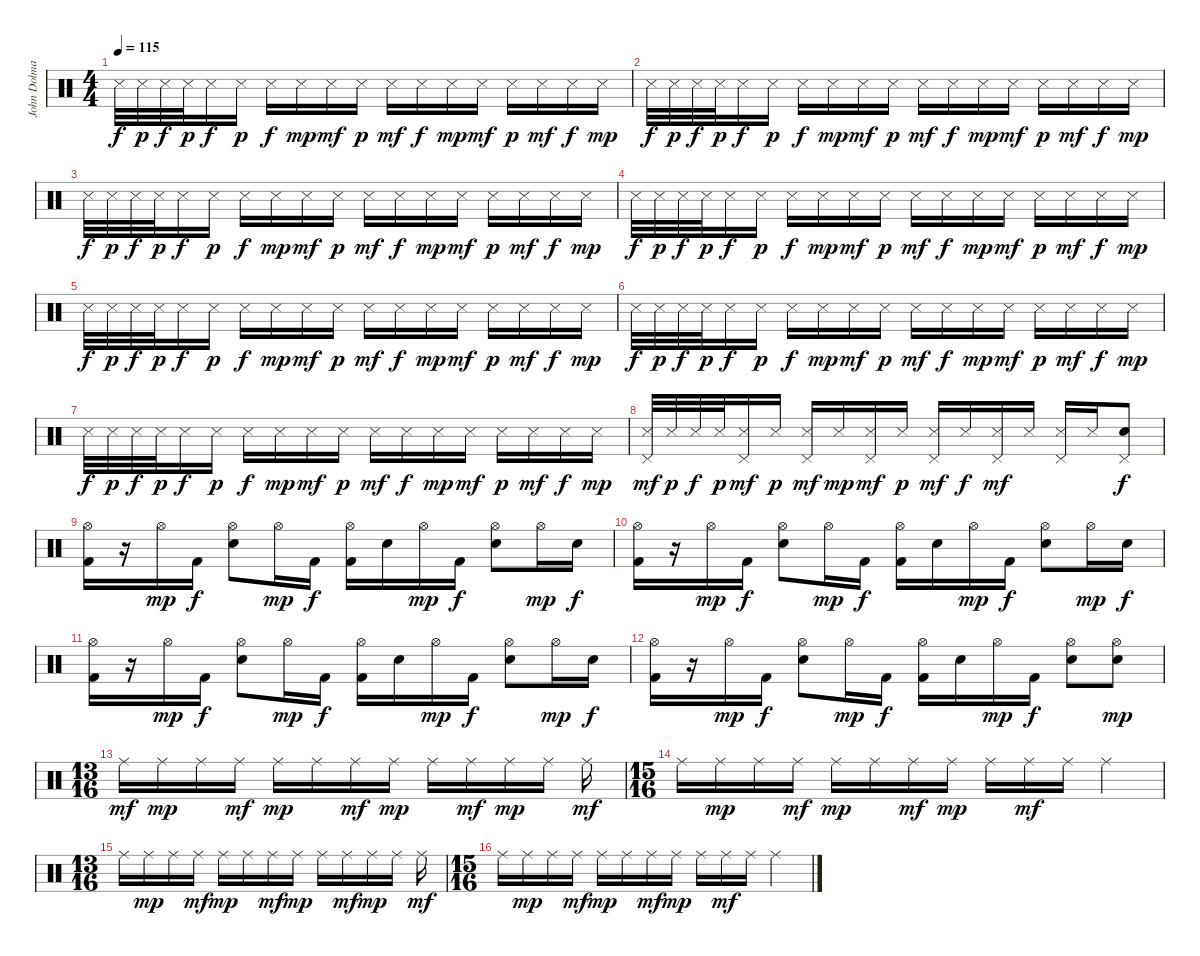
\track ("John Dolmayan" "John Dolma") {instrument percussion}
\staff {score}
\articulation defaults
\ts (4 4)
\tempo 115
\clef neutral
\ks c "Snare (side stick) 3".32{dy f} "Snare (side stick) 3".32{dy p} "Snare (side stick) 3".32{dy f} "Snare (side stick) 3".32{dy p} "Snare (side stick) 3".16{dy f} "Snare (side stick) 3".16{dy p} "Snare (side stick) 3".16{dy f} "Snare (side stick) 3".16{dy mp} "Snare (side stick) 3".16{dy mf} "Snare (side stick) 3".16{dy p} "Snare (side stick) 3".16{dy mf} "Snare (side stick) 3".16{dy f} "Snare (side stick) 3".16{dy mp} "Snare (side stick) 3".16{dy mf} "Snare (side stick) 3".16{dy p} "Snare (side stick) 3".16{dy mf} "Snare (side stick) 3".16{dy f} "Snare (side stick) 3".16{dy mp}
|
"Snare (side stick) 3".32{dy f} "Snare (side stick) 3".32{dy p} "Snare (side stick) 3".32{dy f} "Snare (side stick) 3".32{dy p} "Snare (side stick) 3".16{dy f} "Snare (side stick) 3".16{dy p} "Snare (side stick) 3".16{dy f} "Snare (side stick) 3".16{dy mp} "Snare (side stick) 3".16{dy mf} "Snare (side stick) 3".16{dy p} "Snare (side stick) 3".16{dy mf} "Snare (side stick) 3".16{dy f} "Snare (side stick) 3".16{dy mp} "Snare (side stick) 3".16{dy mf} "Snare (side stick) 3".16{dy p} "Snare (side stick) 3".16{dy mf} "Snare (side stick) 3".16{dy f} "Snare (side stick) 3".16{dy mp} |
"Snare (side stick) 3".32{dy f} "Snare (side stick) 3".32{dy p} "Snare (side stick) 3".32{dy f} "Snare (side stick) 3".32{dy p} "Snare (side stick) 3".16{dy f} "Snare (side stick) 3".16{dy p} "Snare (side stick) 3".16{dy f} "Snare (side stick) 3".16{dy mp} "Snare (side stick) 3".16{dy mf} "Snare (side stick) 3".16{dy p} "Snare (side stick) 3".16{dy mf} "Snare (side stick) 3".16{dy f} "Snare (side stick) 3".16{dy mp} "Snare (side stick) 3".16{dy mf} "Snare (side stick) 3".16{dy p} "Snare (side stick) 3".16{dy mf} "Snare (side stick) 3".16{dy f} "Snare (side stick) 3".16{dy mp} |
"Snare (side stick) 3".32{dy f} "Snare (side stick) 3".32{dy p} "Snare (side stick) 3".32{dy f} "Snare (side stick) 3".32{dy p} "Snare (side stick) 3".16{dy f} "Snare (side stick) 3".16{dy p} "Snare (side stick) 3".16{dy f} "Snare (side stick) 3".16{dy mp} "Snare (side stick) 3".16{dy mf} "Snare (side stick) 3".16{dy p} "Snare (side stick) 3".16{dy mf} "Snare (side stick) 3".16{dy f} "Snare (side stick) 3".16{dy mp} "Snare (side stick) 3".16{dy mf} "Snare (side stick) 3".16{dy p} "Snare (side stick) 3".16{dy mf} "Snare (side stick) 3".16{dy f} "Snare (side stick) 3".16{dy mp} |
"Snare (side stick) 3".32{dy f} "Snare (side stick) 3".32{dy p} "Snare (side stick) 3".32{dy f} "Snare (side stick) 3".32{dy p} "Snare (side stick) 3".16{dy f} "Snare (side stick) 3".16{dy p} "Snare (side stick) 3".16{dy f} "Snare (side stick) 3".16{dy mp} "Snare (side stick) 3".16{dy mf} "Snare (side stick) 3".16{dy p} "Snare (side stick) 3".16{dy mf} "Snare (side stick) 3".16{dy f} "Snare (side stick) 3".16{dy mp} "Snare (side stick) 3".16{dy mf} "Snare (side stick) 3".16{dy p} "Snare (side stick) 3".16{dy mf} "Snare (side stick) 3".16{dy f} "Snare (side stick) 3".16{dy mp} |
"Snare (side stick) 3".32{dy f} "Snare (side stick) 3".32{dy p} "Snare (side stick) 3".32{dy f} "Snare (side stick) 3".32{dy p} "Snare (side stick) 3".16{dy f} "Snare (side stick) 3".16{dy p} "Snare (side stick) 3".16{dy f} "Snare (side stick) 3".16{dy mp} "Snare (side stick) 3".16{dy mf} "Snare (side stick) 3".16{dy p} "Snare (side stick) 3".16{dy mf} "Snare (side stick) 3".16{dy f} "Snare (side stick) 3".16{dy mp} "Snare (side stick) 3".16{dy mf} "Snare (side stick) 3".16{dy p} "Snare (side stick) 3".16{dy mf} "Snare (side stick) 3".16{dy f} "Snare (side stick) 3".16{dy mp} |
"Snare (side stick) 3".32{dy f} "Snare (side stick) 3".32{dy p} "Snare (side stick) 3".32{dy f} "Snare (side stick) 3".32{dy p} "Snare (side stick) 3".16{dy f} "Snare (side stick) 3".16{dy p} "Snare (side stick) 3".16{dy f} "Snare (side stick) 3".16{dy mp} "Snare (side stick) 3".16{dy mf} "Snare (side stick) 3".16{dy p} "Snare (side stick) 3".16{dy mf} "Snare (side stick) 3".16{dy f} "Snare (side stick) 3".16{dy mp} "Snare (side stick) 3".16{dy mf} "Snare (side stick) 3".16{dy p} "Snare (side stick) 3".16{dy mf} "Snare (side stick) 3".16{dy f} "Snare (side stick) 3".16{dy mp} |
("Snare (side stick) 3" "Pedal Hi-Hat (hit)").32{dy mf} "Snare (side stick) 3".32{dy p} "Snare (side stick) 3".32{dy f} "Snare (side stick) 3".32{dy p} ("Snare (side stick) 3" "Pedal Hi-Hat (hit)").16{dy mf} "Snare (side stick) 3".16{dy p} ("Snare (side stick) 3" "Pedal Hi-Hat (hit)").16{dy mf} "Snare (side stick) 3".16{dy mp} ("Snare (side stick) 3" "Pedal Hi-Hat (hit)").16{dy mf} "Snare (side stick) 3".16{dy p} ("Snare (side stick) 3" "Pedal Hi-Hat (hit)").16{dy mf} "Snare (side stick) 3".16{dy f} ("Snare (side stick) 3" "Pedal Hi-Hat (hit)").16{dy mf} "Snare (side stick) 3".16 ("Snare (side stick) 3" "Pedal Hi-Hat (hit)").16 "Snare (side stick) 3".16 ("Pedal Hi-Hat (hit)" "Electric Snare (hit)").8{dy f} |
("Hi-Hat (open)" "Kick (hit) 2").16 r.16 "Hi-Hat (open)".16{dy mp} "Kick (hit) 2".16{dy f} ("Hi-Hat (open)" "Electric Snare (hit)").8 "Hi-Hat (open)".16{dy mp} "Kick (hit) 2".16{dy f} ("Hi-Hat (open)" "Kick (hit) 2").16 "Electric Snare (hit)".16 "Hi-Hat (open)".16{dy mp} "Kick (hit) 2".16{dy f} ("Hi-Hat (open)" "Electric Snare (hit)").8 "Hi-Hat (open)".16{dy mp} "Electric Snare (hit)".16{dy f} |
("Hi-Hat (open)" "Kick (hit) 2").16 r.16 "Hi-Hat (open)".16{dy mp} "Kick (hit) 2".16{dy f} ("Hi-Hat (open)" "Electric Snare (hit)").8 "Hi-Hat (open)".16{dy mp} "Kick (hit) 2".16{dy f} ("Hi-Hat (open)" "Kick (hit) 2").16 "Electric Snare (hit)".16 "Hi-Hat (open)".16{dy mp} "Kick (hit) 2".16{dy f} ("Hi-Hat (open)" "Electric Snare (hit)").8 "Hi-Hat (open)".16{dy mp} "Electric Snare (hit)".16{dy f} |
("Hi-Hat (open)" "Kick (hit) 2").16 r.16 "Hi-Hat (open)".16{dy mp} "Kick (hit) 2".16{dy f} ("Hi-Hat (open)" "Electric Snare (hit)").8 "Hi-Hat (open)".16{dy mp} "Kick (hit) 2".16{dy f} ("Hi-Hat (open)" "Kick (hit) 2").16 "Electric Snare (hit)".16 "Hi-Hat (open)".16{dy mp} "Kick (hit) 2".16{dy f} ("Hi-Hat (open)" "Electric Snare (hit)").8 "Hi-Hat (open)".16{dy mp} "Electric Snare (hit)".16{dy f} |
("Hi-Hat (open)" "Kick (hit) 2").16 r.16 "Hi-Hat (open)".16{dy mp} "Kick (hit) 2".16{dy f} ("Hi-Hat (open)" "Electric Snare (hit)").8 "Hi-Hat (open)".16{dy mp} "Kick (hit) 2".16{dy f} ("Hi-Hat (open)" "Kick (hit) 2").16 "Electric Snare (hit)".16 "Hi-Hat (open)".16{dy mp} "Kick (hit) 2".16{dy f} ("Hi-Hat (open)" "Electric Snare (hit)").8 ("Hi-Hat (open)" "Electric Snare (hit)").8{dy mp} |
\ts (13 16)
"Ride (middle)".16{dy mf} "Ride (middle)".16{dy mp} "Ride (middle)".16 "Ride (middle)".16{dy mf} "Ride (middle)".16{dy mp} "Ride (middle)".16 "Ride (middle)".16{dy mf} "Ride (middle)".16{dy mp} "Ride (middle)".16 "Ride (middle)".16{dy mf} "Ride (middle)".16{dy mp} "Ride (middle)".16 "Ride (middle)".16{dy mf} |
\ts (15 16)
"Ride (middle)".16 "Ride (middle)".16{dy mp} "Ride (middle)".16 "Ride (middle)".16{dy mf} "Ride (middle)".16{dy mp} "Ride (middle)".16 "Ride (middle)".16{dy mf} "Ride (middle)".16{dy mp} "Ride (middle)".16 "Ride (middle)".16{dy mf} "Ride (middle)".16 "Ride (middle)".4 |
\ts (13 16)
"Ride (middle)".16 "Ride (middle)".16{dy mp} "Ride (middle)".16 "Ride (middle)".16{dy mf} "Ride (middle)".16{dy mp} "Ride (middle)".16 "Ride (middle)".16{dy mf} "Ride (middle)".16{dy mp} "Ride (middle)".16 "Ride (middle)".16{dy mf} "Ride (middle)".16{dy mp} "Ride (middle)".16 "Ride (middle)".16{dy mf} |
\ts (15 16)
"Ride (middle)".16 "Ride (middle)".16{dy mp} "Ride (middle)".16 "Ride (middle)".16{dy mf} "Ride (middle)".16{dy mp} "Ride (middle)".16 "Ride (middle)".16{dy mf} "Ride (middle)".16{dy mp} "Ride (middle)".16 "Ride (middle)".16{dy mf} "Ride (middle)".16 "Ride (middle)".4
